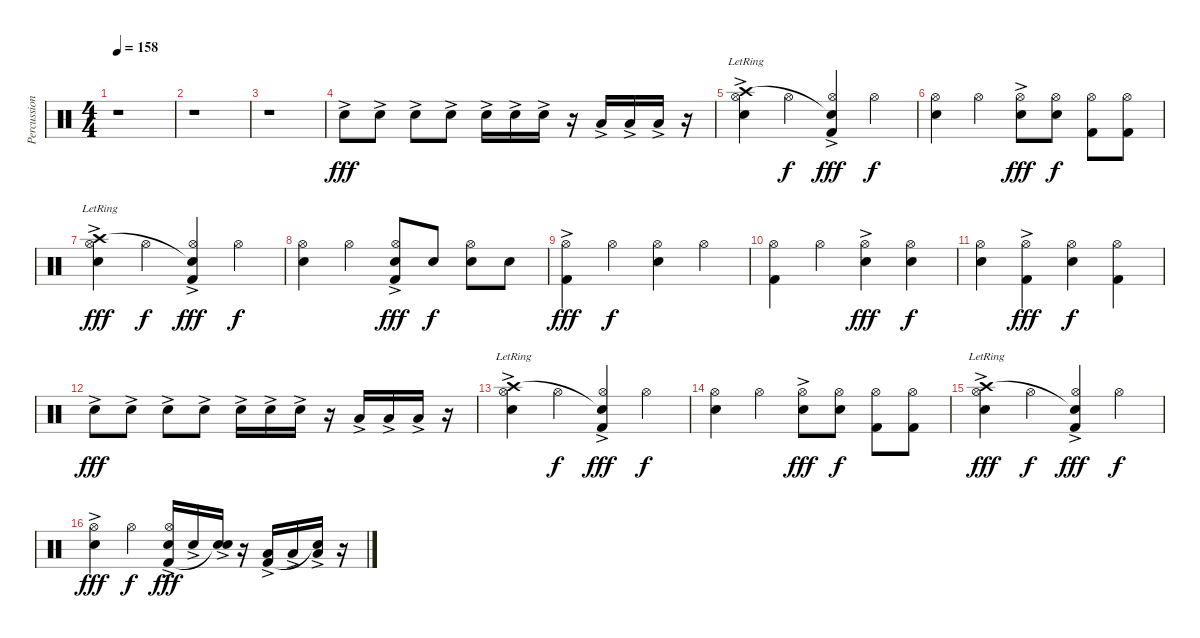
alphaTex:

\track ("Percussion" "Percussion") {instrument percussion}
\staff {score}
\articulation defaults
\ts (4 4)
\tempo 158
\clef neutral
\ks c
r.1{dy fff} |
r.1 |
r.1 |
"Snare (hit) 2"{ac}.8 "Snare (hit) 2"{ac}.8 "Snare (hit) 2"{ac}.8 "Snare (hit) 2"{ac}.8 "Electric Snare (hit)"{ac}.16 "Electric Snare (hit)"{ac}.16 "Electric Snare (hit)"{ac}.16 r.16 "Low Floor Tom (hit)"{ac}.16 "Low Floor Tom (hit)"{ac}.16 "Low Floor Tom (hit)"{ac}.16 r.16 |
("Snare (hit) 2" "Crash high (hit)"{ac lr} "Hi-Hat (open)").4 "Hi-Hat (open)".4{dy f} ("Kick (hit) 2"{ac} "Snare (hit)"{t} "Hi-Hat (open)").4{dy fff} "Hi-Hat (open)".4{dy f} |
("Snare (hit) 2" "Hi-Hat (open)").4 "Hi-Hat (open)".4 ("Snare (hit) 2"{ac} "Hi-Hat (open)").8{dy fff} ("Snare (hit) 2" "Hi-Hat (open)").8{dy f} ("Kick (hit) 2" "Hi-Hat (open)").8 ("Kick (hit) 2" "Hi-Hat (open)").8 |
("Snare (hit) 2"{ac} "Crash high (hit)"{ac lr} "Hi-Hat (open)").4{dy fff} "Hi-Hat (open)".4{dy f} ("Kick (hit) 2"{ac} "Snare (hit)"{t} "Hi-Hat (open)").4{dy fff} "Hi-Hat (open)".4{dy f} |
("Snare (hit) 2" "Hi-Hat (open)").4 "Hi-Hat (open)".4 ("Snare (hit) 2"{ac} "Kick (hit) 2" "Hi-Hat (open)").8{dy fff} "Snare (hit) 2".8{dy f} ("Snare (hit) 2" "Hi-Hat (open)").8 "Snare (hit) 2".8 |
("Kick (hit) 2"{ac} "Hi-Hat (open)").4{dy fff} "Hi-Hat (open)".4{dy f} ("Snare (hit) 2" "Hi-Hat (open)").4 "Hi-Hat (open)".4 |
("Kick (hit) 2" "Hi-Hat (open)").4 "Hi-Hat (open)".4 ("Snare (hit) 2"{ac} "Hi-Hat (open)").4{dy fff} ("Snare (hit) 2" "Hi-Hat (open)").4{dy f} |
("Snare (hit) 2" "Hi-Hat (open)").4 ("Kick (hit) 2"{ac} "Hi-Hat (open)").4{dy fff} ("Snare (hit) 2" "Hi-Hat (open)").4{dy f} ("Kick (hit) 2" "Hi-Hat (open)").4 |
"Snare (hit) 2"{ac}.8{dy fff} "Snare (hit) 2"{ac}.8 "Snare (hit) 2"{ac}.8 "Snare (hit) 2"{ac}.8 "Electric Snare (hit)"{ac}.16 "Electric Snare (hit)"{ac}.16 "Electric Snare (hit)"{ac}.16 r.16 "Low Floor Tom (hit)"{ac}.16 "Low Floor Tom (hit)"{ac}.16 "Low Floor Tom (hit)"{ac}.16 r.16 |
("Snare (hit) 2" "Crash high (hit)"{ac lr} "Hi-Hat (open)").4 "Hi-Hat (open)".4{dy f} ("Kick (hit) 2"{ac} "Snare (hit)"{t} "Hi-Hat (open)").4{dy fff} "Hi-Hat (open)".4{dy f} |
("Snare (hit) 2" "Hi-Hat (open)").4 "Hi-Hat (open)".4 ("Snare (hit) 2"{ac} "Hi-Hat (open)").8{dy fff} ("Snare (hit) 2" "Hi-Hat (open)").8{dy f} ("Kick (hit) 2" "Hi-Hat (open)").8 ("Kick (hit) 2" "Hi-Hat (open)").8 |
("Snare (hit) 2"{ac} "Crash high (hit)"{ac lr} "Hi-Hat (open)").4{dy fff} "Hi-Hat (open)".4{dy f} ("Kick (hit) 2"{ac} "Snare (hit)"{t} "Hi-Hat (open)").4{dy fff} "Hi-Hat (open)".4{dy f} |
("Snare (hit) 2"{ac} "Hi-Hat (open)").4{dy fff} "Hi-Hat (open)".4{dy f} ("Snare (hit) 2"{ac} "Kick (hit) 2" "Hi-Hat (open)").16{dy fff} "Snare (hit) 2"{ac}.16 ("Snare (hit) 2"{ac} "Snare (hit)"{t}).16 r.16 ("Low Floor Tom (hit)"{ac} "Kick (hit) 2").16 "Low Floor Tom (hit)"{ac}.16 ("Low Floor Tom (hit)"{ac} "Snare (hit)"{t}).16 r.16
